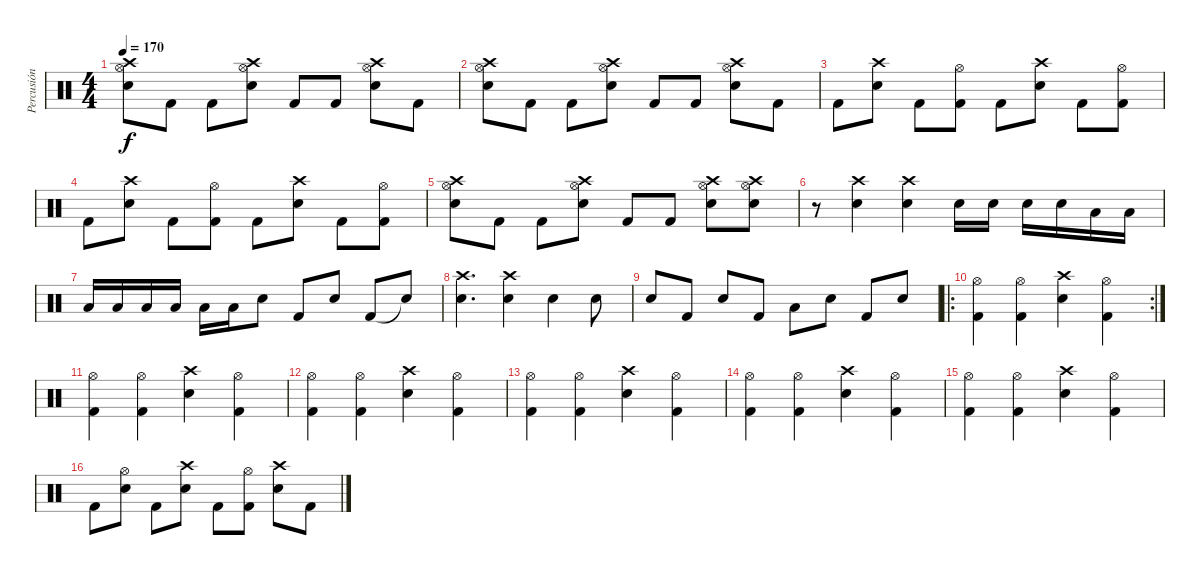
\track ("Percusión" "Percusión") {instrument percussion}
\staff {score}
\articulation defaults
\ts (4 4)
\tempo 170
\clef neutral
\ks c
("Crash high (hit)" "Hi-Hat (open)" "Electric Snare (hit)").8{dy f} "Kick (hit) 2".8 "Kick (hit) 2".8 ("Crash high (hit)" "Hi-Hat (open)" "Electric Snare (hit)").8 "Kick (hit) 2".8 "Kick (hit) 2".8 ("Crash high (hit)" "Hi-Hat (open)" "Electric Snare (hit)").8 "Kick (hit) 2".8 |
("Crash high (hit)" "Hi-Hat (open)" "Electric Snare (hit)").8 "Kick (hit) 2".8 "Kick (hit) 2".8 ("Crash high (hit)" "Hi-Hat (open)" "Electric Snare (hit)").8 "Kick (hit) 2".8 "Kick (hit) 2".8 ("Crash high (hit)" "Hi-Hat (open)" "Electric Snare (hit)").8 "Kick (hit) 2".8 |
"Kick (hit) 2".8 ("Crash high (hit)" "Electric Snare (hit)").8 "Kick (hit) 2".8 ("Hi-Hat (open)" "Kick (hit) 2").8 "Kick (hit) 2".8 ("Crash high (hit)" "Electric Snare (hit)").8 "Kick (hit) 2".8 ("Hi-Hat (open)" "Kick (hit) 2").8 |
"Kick (hit) 2".8 ("Crash high (hit)" "Electric Snare (hit)").8 "Kick (hit) 2".8 ("Hi-Hat (open)" "Kick (hit) 2").8 "Kick (hit) 2".8 ("Crash high (hit)" "Electric Snare (hit)").8 "Kick (hit) 2".8 ("Hi-Hat (open)" "Kick (hit) 2").8 |
("Crash high (hit)" "Hi-Hat (open)" "Electric Snare (hit)").8 "Kick (hit) 2".8 "Kick (hit) 2".8 ("Crash high (hit)" "Hi-Hat (open)" "Electric Snare (hit)").8 "Kick (hit) 2".8 "Kick (hit) 2".8 ("Crash high (hit)" "Hi-Hat (open)" "Electric Snare (hit)").8 ("Crash high (hit)" "Hi-Hat (open)" "Electric Snare (hit)").8 |
r.8 ("Crash high (hit)" "Electric Snare (hit)").4 ("Crash high (hit)" "Electric Snare (hit)").4 "Electric Snare (hit)".16 "Electric Snare (hit)".16 "Electric Snare (hit)".16 "Electric Snare (hit)".16 "Low Tom (hit)".16 "Low Tom (hit)".16 |
"Low Tom (hit)".16 "Low Tom (hit)".16 "Low Tom (hit)".16 "Low Tom (hit)".16 "Low Tom (hit)".16 "Low Tom (hit)".16 "Electric Snare (hit)".8 "Kick (hit) 2".8 "Electric Snare (hit)".8 "Kick (hit) 2".8 "Snare (hit)"{t}.8 |
("Crash high (hit)" "Electric Snare (hit)").4{d} ("Crash high (hit)" "Electric Snare (hit)").4 "Electric Snare (hit)".4 "Electric Snare (hit)".8 |
"Electric Snare (hit)".8 "Kick (hit) 2".8 "Electric Snare (hit)".8 "Kick (hit) 2".8 "Low Tom (hit)".8 "Electric Snare (hit)".8 "Kick (hit) 2".8 "Electric Snare (hit)".8 |
\ro
\rc 2
("Hi-Hat (open)" "Kick (hit) 2").4 ("Hi-Hat (open)" "Kick (hit) 2").4 ("Crash high (hit)" "Electric Snare (hit)").4 ("Hi-Hat (open)" "Kick (hit) 2").4 |
("Hi-Hat (open)" "Kick (hit) 2").4 ("Hi-Hat (open)" "Kick (hit) 2").4 ("Crash high (hit)" "Electric Snare (hit)").4 ("Hi-Hat (open)" "Kick (hit) 2").4 |
("Hi-Hat (open)" "Kick (hit) 2").4 ("Hi-Hat (open)" "Kick (hit) 2").4 ("Crash high (hit)" "Electric Snare (hit)").4 ("Hi-Hat (open)" "Kick (hit) 2").4 |
("Hi-Hat (open)" "Kick (hit) 2").4 ("Hi-Hat (open)" "Kick (hit) 2").4 ("Crash high (hit)" "Electric Snare (hit)").4 ("Hi-Hat (open)" "Kick (hit) 2").4 |
("Hi-Hat (open)" "Kick (hit) 2").4 ("Hi-Hat (open)" "Kick (hit) 2").4 ("Crash high (hit)" "Electric Snare (hit)").4 ("Hi-Hat (open)" "Kick (hit) 2").4 |
("Hi-Hat (open)" "Kick (hit) 2").4 ("Hi-Hat (open)" "Kick (hit) 2").4 ("Crash high (hit)" "Electric Snare (hit)").4 ("Hi-Hat (open)" "Kick (hit) 2").4 |
"Kick (hit) 2".8 ("Hi-Hat (open)" "Electric Snare (hit)").8 "Kick (hit) 2".8 ("Crash high (hit)" "Electric Snare (hit)").8 "Kick (hit) 2".8 ("Hi-Hat (open)" "Kick (hit) 2").8 ("Crash high (hit)" "Electric Snare (hit)").8 "Kick (hit) 2".8
